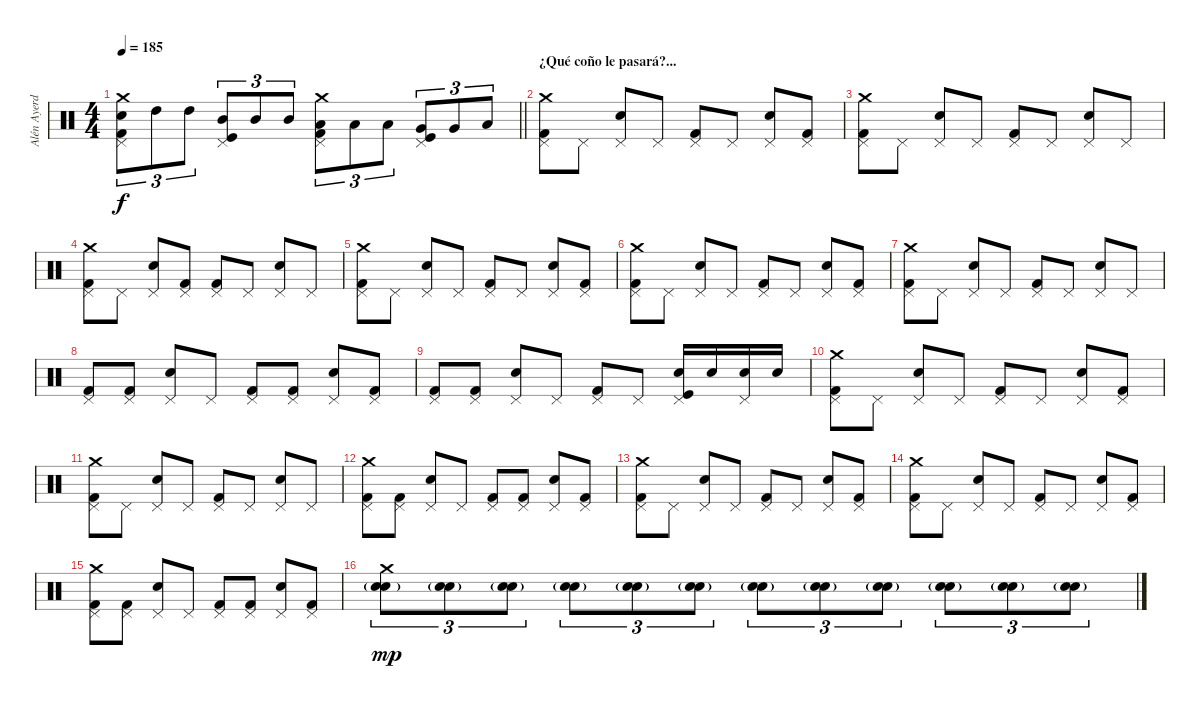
\track ("Alén Ayerdi - Batería" "Alén Ayerd") {instrument percussion}
\staff {score}
\articulation defaults
\ts (4 4)
\tempo 185
\clef neutral
\barLineRight lightlight
\ks c
("Crash medium (hit)" "Pedal Hi-Hat (hit)" "Electric Snare (hit)" "Kick (hit) 2").8{tu (3 2) dy f} "High Tom (hit)".8{tu (3 2)} "High Tom (hit)".8{tu (3 2)} ("Pedal Hi-Hat (hit)" "Mid Tom (hit)" "Kick (hit)").8{tu (3 2)} "Mid Tom (hit)".8{tu (3 2)} "Mid Tom (hit)".8{tu (3 2)} ("Crash medium (hit)" "Pedal Hi-Hat (hit)" "Low Tom (hit)" "Kick (hit) 2").8{tu (3 2)} "Low Tom (hit)".8{tu (3 2)} "Low Tom (hit)".8{tu (3 2)} ("Pedal Hi-Hat (hit)" "Very Low Tom (hit)" "Kick (hit)").8{tu (3 2)} "Very Low Tom (hit)".8{tu (3 2)} "Low Floor Tom (hit)".8{tu (3 2)} |
\section ("" "¿Qué coño le pasará?...")
("Crash medium (hit)" "Pedal Hi-Hat (hit)" "Kick (hit) 2").8 "Pedal Hi-Hat (hit)".8 ("Pedal Hi-Hat (hit)" "Electric Snare (hit)").8 "Pedal Hi-Hat (hit)".8 ("Pedal Hi-Hat (hit)" "Kick (hit) 2").8 "Pedal Hi-Hat (hit)".8 ("Pedal Hi-Hat (hit)" "Electric Snare (hit)").8 ("Pedal Hi-Hat (hit)" "Kick (hit) 2").8 |
("Crash medium (hit)" "Pedal Hi-Hat (hit)" "Kick (hit) 2").8 "Pedal Hi-Hat (hit)".8 ("Pedal Hi-Hat (hit)" "Electric Snare (hit)").8 "Pedal Hi-Hat (hit)".8 ("Pedal Hi-Hat (hit)" "Kick (hit) 2").8 "Pedal Hi-Hat (hit)".8 ("Pedal Hi-Hat (hit)" "Electric Snare (hit)").8 "Pedal Hi-Hat (hit)".8 |
("Crash medium (hit)" "Pedal Hi-Hat (hit)" "Kick (hit) 2").8 "Pedal Hi-Hat (hit)".8 ("Pedal Hi-Hat (hit)" "Electric Snare (hit)").8 ("Pedal Hi-Hat (hit)" "Kick (hit) 2").8 ("Pedal Hi-Hat (hit)" "Kick (hit) 2").8 "Pedal Hi-Hat (hit)".8 ("Pedal Hi-Hat (hit)" "Electric Snare (hit)").8 "Pedal Hi-Hat (hit)".8 |
("Crash medium (hit)" "Pedal Hi-Hat (hit)" "Kick (hit) 2").8 "Pedal Hi-Hat (hit)".8 ("Pedal Hi-Hat (hit)" "Electric Snare (hit)").8 "Pedal Hi-Hat (hit)".8 ("Pedal Hi-Hat (hit)" "Kick (hit) 2").8 "Pedal Hi-Hat (hit)".8 ("Pedal Hi-Hat (hit)" "Electric Snare (hit)").8 ("Pedal Hi-Hat (hit)" "Kick (hit) 2").8 |
("Crash medium (hit)" "Pedal Hi-Hat (hit)" "Kick (hit) 2").8 "Pedal Hi-Hat (hit)".8 ("Pedal Hi-Hat (hit)" "Electric Snare (hit)").8 "Pedal Hi-Hat (hit)".8 ("Pedal Hi-Hat (hit)" "Kick (hit) 2").8 "Pedal Hi-Hat (hit)".8 ("Pedal Hi-Hat (hit)" "Electric Snare (hit)").8 ("Pedal Hi-Hat (hit)" "Kick (hit) 2").8 |
("Crash medium (hit)" "Pedal Hi-Hat (hit)" "Kick (hit) 2").8 "Pedal Hi-Hat (hit)".8 ("Pedal Hi-Hat (hit)" "Electric Snare (hit)").8 "Pedal Hi-Hat (hit)".8 ("Pedal Hi-Hat (hit)" "Kick (hit) 2").8 "Pedal Hi-Hat (hit)".8 ("Pedal Hi-Hat (hit)" "Electric Snare (hit)").8 "Pedal Hi-Hat (hit)".8 |
("Pedal Hi-Hat (hit)" "Kick (hit) 2").8 ("Pedal Hi-Hat (hit)" "Kick (hit) 2").8 ("Pedal Hi-Hat (hit)" "Electric Snare (hit)").8 "Pedal Hi-Hat (hit)".8 ("Pedal Hi-Hat (hit)" "Kick (hit) 2").8 ("Pedal Hi-Hat (hit)" "Kick (hit) 2").8 ("Pedal Hi-Hat (hit)" "Electric Snare (hit)").8 ("Pedal Hi-Hat (hit)" "Kick (hit) 2").8 |
("Pedal Hi-Hat (hit)" "Kick (hit) 2").8 ("Pedal Hi-Hat (hit)" "Kick (hit) 2").8 ("Pedal Hi-Hat (hit)" "Electric Snare (hit)").8 "Pedal Hi-Hat (hit)".8 ("Pedal Hi-Hat (hit)" "Kick (hit) 2").8 "Pedal Hi-Hat (hit)".8 ("Pedal Hi-Hat (hit)" "Electric Snare (hit)" "Kick (hit)").16 "Electric Snare (hit)".16 ("Pedal Hi-Hat (hit)" "Electric Snare (hit)").16 "Electric Snare (hit)".16 |
("Crash medium (hit)" "Pedal Hi-Hat (hit)" "Kick (hit) 2").8 "Pedal Hi-Hat (hit)".8 ("Pedal Hi-Hat (hit)" "Electric Snare (hit)").8 "Pedal Hi-Hat (hit)".8 ("Pedal Hi-Hat (hit)" "Kick (hit) 2").8 "Pedal Hi-Hat (hit)".8 ("Pedal Hi-Hat (hit)" "Electric Snare (hit)").8 ("Pedal Hi-Hat (hit)" "Kick (hit) 2").8 |
("Crash medium (hit)" "Pedal Hi-Hat (hit)" "Kick (hit) 2").8 "Pedal Hi-Hat (hit)".8 ("Pedal Hi-Hat (hit)" "Electric Snare (hit)").8 "Pedal Hi-Hat (hit)".8 ("Pedal Hi-Hat (hit)" "Kick (hit) 2").8 "Pedal Hi-Hat (hit)".8 ("Pedal Hi-Hat (hit)" "Electric Snare (hit)").8 "Pedal Hi-Hat (hit)".8 |
("Crash medium (hit)" "Pedal Hi-Hat (hit)" "Kick (hit) 2").8 ("Pedal Hi-Hat (hit)" "Kick (hit) 2").8 ("Pedal Hi-Hat (hit)" "Electric Snare (hit)").8 "Pedal Hi-Hat (hit)".8 ("Pedal Hi-Hat (hit)" "Kick (hit) 2").8 ("Pedal Hi-Hat (hit)" "Kick (hit) 2").8 ("Pedal Hi-Hat (hit)" "Electric Snare (hit)").8 ("Pedal Hi-Hat (hit)" "Kick (hit) 2").8 |
("Crash medium (hit)" "Pedal Hi-Hat (hit)" "Kick (hit) 2").8 "Pedal Hi-Hat (hit)".8 ("Pedal Hi-Hat (hit)" "Electric Snare (hit)").8 "Pedal Hi-Hat (hit)".8 ("Pedal Hi-Hat (hit)" "Kick (hit) 2").8 "Pedal Hi-Hat (hit)".8 ("Pedal Hi-Hat (hit)" "Electric Snare (hit)").8 ("Pedal Hi-Hat (hit)" "Kick (hit) 2").8 |
("Crash medium (hit)" "Pedal Hi-Hat (hit)" "Kick (hit) 2").8 "Pedal Hi-Hat (hit)".8 ("Pedal Hi-Hat (hit)" "Electric Snare (hit)").8 "Pedal Hi-Hat (hit)".8 ("Pedal Hi-Hat (hit)" "Kick (hit) 2").8 "Pedal Hi-Hat (hit)".8 ("Pedal Hi-Hat (hit)" "Electric Snare (hit)").8 ("Pedal Hi-Hat (hit)" "Kick (hit) 2").8 |
("Crash medium (hit)" "Pedal Hi-Hat (hit)" "Kick (hit) 2").8 ("Pedal Hi-Hat (hit)" "Kick (hit) 2").8 ("Pedal Hi-Hat (hit)" "Electric Snare (hit)").8 "Pedal Hi-Hat (hit)".8 ("Pedal Hi-Hat (hit)" "Kick (hit) 2").8 ("Pedal Hi-Hat (hit)" "Kick (hit) 2").8 ("Pedal Hi-Hat (hit)" "Electric Snare (hit)").8 ("Pedal Hi-Hat (hit)" "Kick (hit) 2").8 |
("Crash medium (hit)" "Snare (hit) 2"{g} "Electric Snare (hit)"{g}).8{tu (3 2) dy mp} ("Snare (hit) 2"{g} "Electric Snare (hit)"{g}).8{tu (3 2)} ("Snare (hit) 2"{g} "Electric Snare (hit)").8{tu (3 2)} ("Snare (hit) 2"{g} "Electric Snare (hit)").8{tu (3 2)} ("Snare (hit) 2"{g} "Electric Snare (hit)").8{tu (3 2)} ("Snare (hit) 2"{g} "Electric Snare (hit)").8{tu (3 2)} ("Snare (hit) 2"{g} "Electric Snare (hit)").8{tu (3 2)} ("Snare (hit) 2"{g} "Electric Snare (hit)").8{tu (3 2)} ("Snare (hit) 2"{g} "Electric Snare (hit)").8{tu (3 2)} ("Snare (hit) 2"{g} "Electric Snare (hit)").8{tu (3 2)} ("Snare (hit) 2"{g} "Electric Snare (hit)").8{tu (3 2)} ("Snare (hit) 2"{g} "Electric Snare (hit)").8{tu (3 2)}
